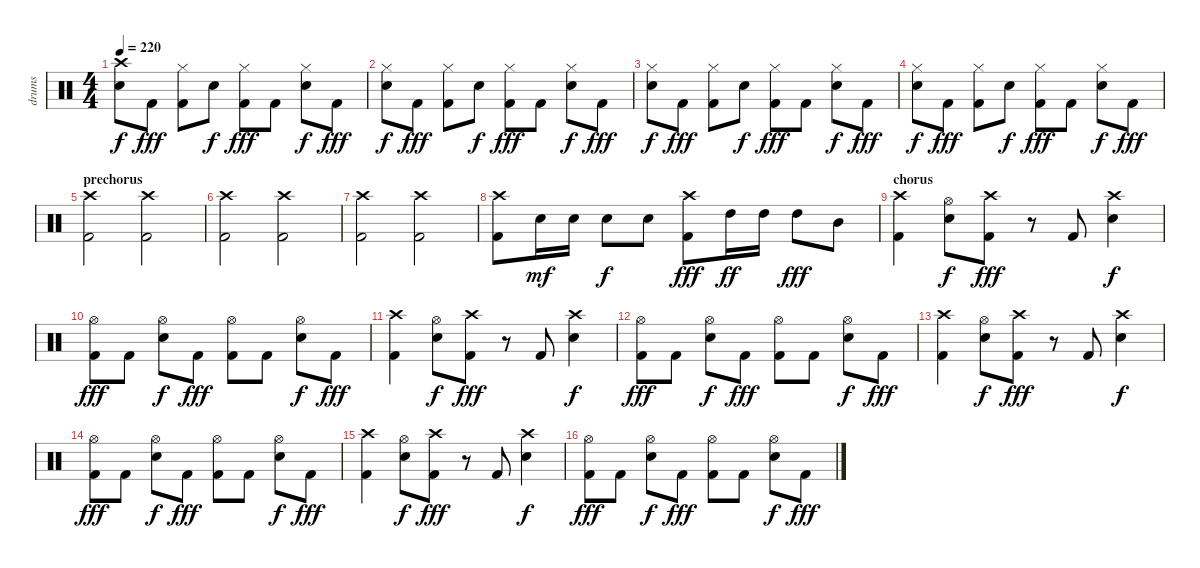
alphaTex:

\track ("drums" "drums") {instrument percussion}
\staff {score}
\articulation defaults
\ts (4 4)
\tempo 220
\clef neutral
\ks c
("Crash high (hit)" "Snare (hit) 2").8{dy f} "Kick (hit) 2".8{dy fff} ("Hi-Hat (closed)" "Kick (hit) 2").8 "Snare (hit) 2".8{dy f} ("Hi-Hat (closed)" "Kick (hit) 2").8{dy fff} "Kick (hit) 2".8 ("Hi-Hat (closed)" "Snare (hit) 2").8{dy f} "Kick (hit) 2".8{dy fff} |
("Hi-Hat (closed)" "Snare (hit) 2").8{dy f} "Kick (hit) 2".8{dy fff} ("Hi-Hat (closed)" "Kick (hit) 2").8 "Snare (hit) 2".8{dy f} ("Hi-Hat (closed)" "Kick (hit) 2").8{dy fff} "Kick (hit) 2".8 ("Hi-Hat (closed)" "Snare (hit) 2").8{dy f} "Kick (hit) 2".8{dy fff} |
("Hi-Hat (closed)" "Snare (hit) 2").8{dy f} "Kick (hit) 2".8{dy fff} ("Hi-Hat (closed)" "Kick (hit) 2").8 "Snare (hit) 2".8{dy f} ("Hi-Hat (closed)" "Kick (hit) 2").8{dy fff} "Kick (hit) 2".8 ("Hi-Hat (closed)" "Snare (hit) 2").8{dy f} "Kick (hit) 2".8{dy fff} |
("Hi-Hat (closed)" "Snare (hit) 2").8{dy f} "Kick (hit) 2".8{dy fff} ("Hi-Hat (closed)" "Kick (hit) 2").8 "Snare (hit) 2".8{dy f} ("Hi-Hat (closed)" "Kick (hit) 2").8{dy fff} "Kick (hit) 2".8 ("Hi-Hat (closed)" "Snare (hit) 2").8{dy f} "Kick (hit) 2".8{dy fff} |
\section ("" "prechorus")
("Crash high (hit)" "Kick (hit) 2").2 ("Crash high (hit)" "Kick (hit) 2").2 |
("Crash high (hit)" "Kick (hit) 2").2 ("Crash high (hit)" "Kick (hit) 2").2 |
("Crash high (hit)" "Kick (hit) 2").2 ("Crash high (hit)" "Kick (hit) 2").2 |
("Crash high (hit)" "Kick (hit) 2").8 "Snare (hit) 2".16{dy mf} "Snare (hit) 2".16 "Snare (hit) 2".8{dy f} "Snare (hit) 2".8 ("Crash high (hit)" "Kick (hit) 2").8{dy fff} "High Tom (hit)".16{dy ff} "High Tom (hit)".16 "High Tom (hit)".8{dy fff} "Mid Tom (hit)".8 |
\section ("" "chorus")
("Crash high (hit)" "Kick (hit) 2").4 ("Hi-Hat (open)" "Snare (hit) 2").8{dy f} ("Crash high (hit)" "Kick (hit) 2").8{dy fff} r.8 "Kick (hit) 2".8 ("Crash high (hit)" "Snare (hit) 2").4{dy f} |
("Hi-Hat (open)" "Kick (hit) 2").8{dy fff} "Kick (hit) 2".8 ("Hi-Hat (open)" "Snare (hit) 2").8{dy f} "Kick (hit) 2".8{dy fff} ("Hi-Hat (open)" "Kick (hit) 2").8 "Kick (hit) 2".8 ("Hi-Hat (open)" "Snare (hit) 2").8{dy f} "Kick (hit) 2".8{dy fff} |
("Crash high (hit)" "Kick (hit) 2").4 ("Hi-Hat (open)" "Snare (hit) 2").8{dy f} ("Crash high (hit)" "Kick (hit) 2").8{dy fff} r.8 "Kick (hit) 2".8 ("Crash high (hit)" "Snare (hit) 2").4{dy f} |
("Hi-Hat (open)" "Kick (hit) 2").8{dy fff} "Kick (hit) 2".8 ("Hi-Hat (open)" "Snare (hit) 2").8{dy f} "Kick (hit) 2".8{dy fff} ("Hi-Hat (open)" "Kick (hit) 2").8 "Kick (hit) 2".8 ("Hi-Hat (open)" "Snare (hit) 2").8{dy f} "Kick (hit) 2".8{dy fff} |
("Crash high (hit)" "Kick (hit) 2").4 ("Hi-Hat (open)" "Snare (hit) 2").8{dy f} ("Crash high (hit)" "Kick (hit) 2").8{dy fff} r.8 "Kick (hit) 2".8 ("Crash high (hit)" "Snare (hit) 2").4{dy f} |
("Hi-Hat (open)" "Kick (hit) 2").8{dy fff} "Kick (hit) 2".8 ("Hi-Hat (open)" "Snare (hit) 2").8{dy f} "Kick (hit) 2".8{dy fff} ("Hi-Hat (open)" "Kick (hit) 2").8 "Kick (hit) 2".8 ("Hi-Hat (open)" "Snare (hit) 2").8{dy f} "Kick (hit) 2".8{dy fff} |
("Crash high (hit)" "Kick (hit) 2").4 ("Hi-Hat (open)" "Snare (hit) 2").8{dy f} ("Crash high (hit)" "Kick (hit) 2").8{dy fff} r.8 "Kick (hit) 2".8 ("Crash high (hit)" "Snare (hit) 2").4{dy f} |
("Hi-Hat (open)" "Kick (hit) 2").8{dy fff} "Kick (hit) 2".8 ("Hi-Hat (open)" "Snare (hit) 2").8{dy f} "Kick (hit) 2".8{dy fff} ("Hi-Hat (open)" "Kick (hit) 2").8 "Kick (hit) 2".8 ("Hi-Hat (open)" "Snare (hit) 2").8{dy f} "Kick (hit) 2".8{dy fff}
